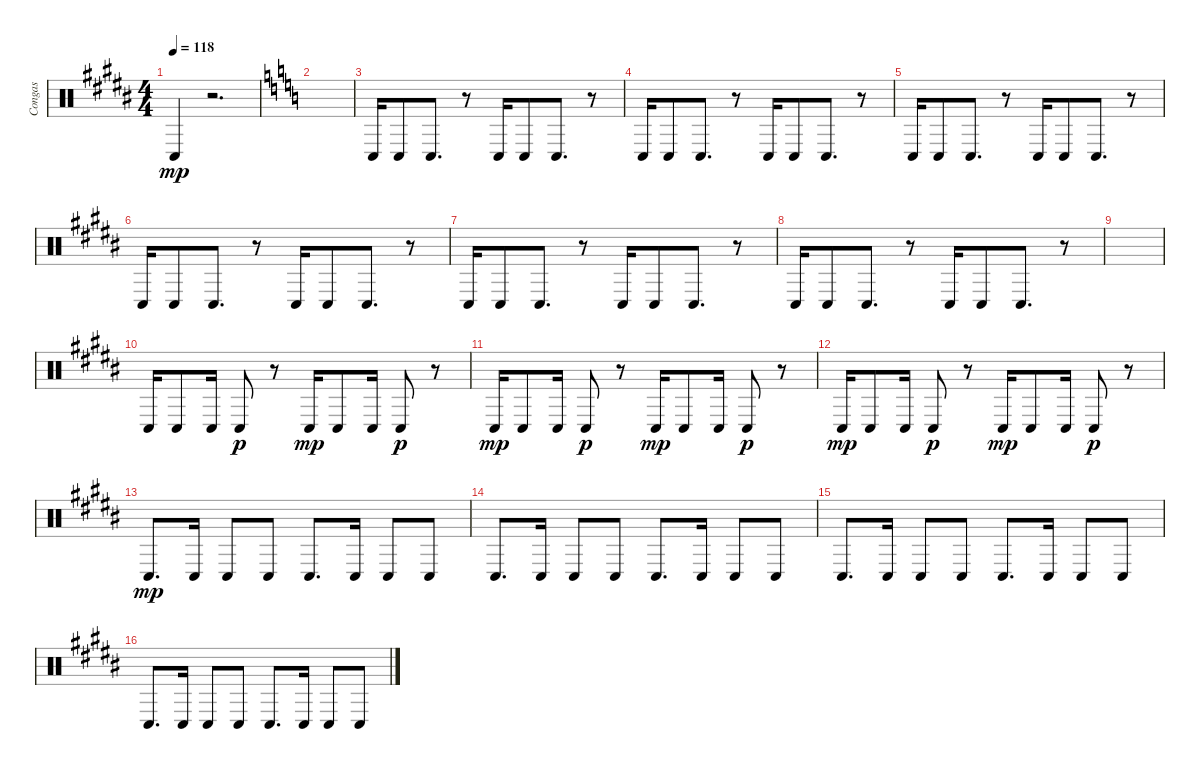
\track ("Congas" "Congas") {instrument percussion}
\staff {score}
\articulation defaults
\ts (4 4)
\tempo 118
\clef neutral
\ks b "Conga low (hit)".4{dy mp}
r.2{d} |
\ks c
|
"Conga low (hit)".16 "Conga low (hit)".8 "Conga low (hit)".8{d} r.8 "Conga low (hit)".16 "Conga low (hit)".8 "Conga low (hit)".8{d} r.8 |
"Conga low (hit)".16 "Conga low (hit)".8 "Conga low (hit)".8{d} r.8 "Conga low (hit)".16 "Conga low (hit)".8 "Conga low (hit)".8{d} r.8 |
"Conga low (hit)".16 "Conga low (hit)".8 "Conga low (hit)".8{d} r.8 "Conga low (hit)".16 "Conga low (hit)".8 "Conga low (hit)".8{d} r.8 |
\ks b "Conga low (hit)".16 "Conga low (hit)".8 "Conga low (hit)".8{d}
r.8 "Conga low (hit)".16 "Conga low (hit)".8 "Conga low (hit)".8{d} r.8 |
"Conga low (hit)".16 "Conga low (hit)".8 "Conga low (hit)".8{d} r.8 "Conga low (hit)".16 "Conga low (hit)".8 "Conga low (hit)".8{d} r.8 |
"Conga low (hit)".16 "Conga low (hit)".8 "Conga low (hit)".8{d} r.8 "Conga low (hit)".16 "Conga low (hit)".8 "Conga low (hit)".8{d} r.8 |
|
"Conga low (hit)".16 "Conga low (hit)".8 "Conga low (hit)".16 "Conga low (hit)".8{dy p} r.8 "Conga low (hit)".16{dy mp} "Conga low (hit)".8 "Conga low (hit)".16 "Conga low (hit)".8{dy p} r.8 |
"Conga low (hit)".16{dy mp} "Conga low (hit)".8 "Conga low (hit)".16 "Conga low (hit)".8{dy p} r.8 "Conga low (hit)".16{dy mp} "Conga low (hit)".8 "Conga low (hit)".16 "Conga low (hit)".8{dy p} r.8 |
"Conga low (hit)".16{dy mp} "Conga low (hit)".8 "Conga low (hit)".16 "Conga low (hit)".8{dy p} r.8 "Conga low (hit)".16{dy mp} "Conga low (hit)".8 "Conga low (hit)".16 "Conga low (hit)".8{dy p} r.8 |
"Conga low (hit)".8{d dy mp} "Conga low (hit)".16 "Conga low (hit)".8 "Conga low (hit)".8 "Conga low (hit)".8{d} "Conga low (hit)".16 "Conga low (hit)".8 "Conga low (hit)".8 |
"Conga low (hit)".8{d} "Conga low (hit)".16 "Conga low (hit)".8 "Conga low (hit)".8 "Conga low (hit)".8{d} "Conga low (hit)".16 "Conga low (hit)".8 "Conga low (hit)".8 |
"Conga low (hit)".8{d} "Conga low (hit)".16 "Conga low (hit)".8 "Conga low (hit)".8 "Conga low (hit)".8{d} "Conga low (hit)".16 "Conga low (hit)".8 "Conga low (hit)".8 |
"Conga low (hit)".8{d} "Conga low (hit)".16 "Conga low (hit)".8 "Conga low (hit)".8 "Conga low (hit)".8{d} "Conga low (hit)".16 "Conga low (hit)".8 "Conga low (hit)".8
